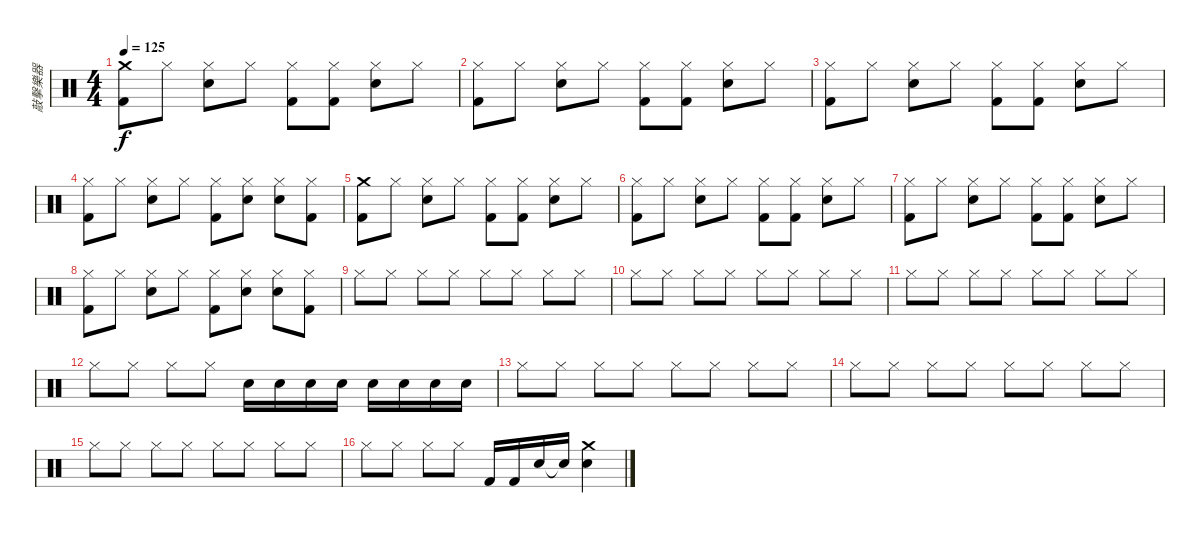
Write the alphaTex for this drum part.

\track ("敲擊樂器" "敲擊樂器") {instrument percussion}
\staff {score}
\articulation defaults
\ts (4 4)
\tempo 125
\clef neutral
\ks c
("Crash medium (hit)" "Kick (hit) 2").8{dy f} "Hi-Hat (closed)".8 ("Hi-Hat (closed)" "Snare (hit) 2").8 "Hi-Hat (closed)".8 ("Hi-Hat (closed)" "Kick (hit) 2").8 ("Hi-Hat (closed)" "Kick (hit) 2").8 ("Hi-Hat (closed)" "Snare (hit) 2").8 "Hi-Hat (closed)".8 |
("Hi-Hat (closed)" "Kick (hit) 2").8 "Hi-Hat (closed)".8 ("Hi-Hat (closed)" "Snare (hit) 2").8 "Hi-Hat (closed)".8 ("Hi-Hat (closed)" "Kick (hit) 2").8 ("Hi-Hat (closed)" "Kick (hit) 2").8 ("Hi-Hat (closed)" "Snare (hit) 2").8 "Hi-Hat (closed)".8 |
("Hi-Hat (closed)" "Kick (hit) 2").8 "Hi-Hat (closed)".8 ("Hi-Hat (closed)" "Snare (hit) 2").8 "Hi-Hat (closed)".8 ("Hi-Hat (closed)" "Kick (hit) 2").8 ("Hi-Hat (closed)" "Kick (hit) 2").8 ("Hi-Hat (closed)" "Snare (hit) 2").8 "Hi-Hat (closed)".8 |
("Hi-Hat (closed)" "Kick (hit) 2").8 "Hi-Hat (closed)".8 ("Hi-Hat (closed)" "Snare (hit) 2").8 "Hi-Hat (closed)".8 ("Hi-Hat (closed)" "Kick (hit) 2").8 ("Hi-Hat (closed)" "Snare (hit) 2").8 ("Hi-Hat (closed)" "Snare (hit) 2").8 ("Hi-Hat (closed)" "Kick (hit) 2").8 |
("Crash medium (hit)" "Kick (hit) 2").8 "Hi-Hat (closed)".8 ("Hi-Hat (closed)" "Snare (hit) 2").8 "Hi-Hat (closed)".8 ("Hi-Hat (closed)" "Kick (hit) 2").8 ("Hi-Hat (closed)" "Kick (hit) 2").8 ("Hi-Hat (closed)" "Snare (hit) 2").8 "Hi-Hat (closed)".8 |
("Hi-Hat (closed)" "Kick (hit) 2").8 "Hi-Hat (closed)".8 ("Hi-Hat (closed)" "Snare (hit) 2").8 "Hi-Hat (closed)".8 ("Hi-Hat (closed)" "Kick (hit) 2").8 ("Hi-Hat (closed)" "Kick (hit) 2").8 ("Hi-Hat (closed)" "Snare (hit) 2").8 "Hi-Hat (closed)".8 |
("Hi-Hat (closed)" "Kick (hit) 2").8 "Hi-Hat (closed)".8 ("Hi-Hat (closed)" "Snare (hit) 2").8 "Hi-Hat (closed)".8 ("Hi-Hat (closed)" "Kick (hit) 2").8 ("Hi-Hat (closed)" "Kick (hit) 2").8 ("Hi-Hat (closed)" "Snare (hit) 2").8 "Hi-Hat (closed)".8 |
("Hi-Hat (closed)" "Kick (hit) 2").8 "Hi-Hat (closed)".8 ("Hi-Hat (closed)" "Snare (hit) 2").8 "Hi-Hat (closed)".8 ("Hi-Hat (closed)" "Kick (hit) 2").8 ("Hi-Hat (closed)" "Snare (hit) 2").8 ("Hi-Hat (closed)" "Snare (hit) 2").8 ("Hi-Hat (closed)" "Kick (hit) 2").8 |
"Hi-Hat (closed)".8 "Hi-Hat (closed)".8 "Hi-Hat (closed)".8 "Hi-Hat (closed)".8 "Hi-Hat (closed)".8 "Hi-Hat (closed)".8 "Hi-Hat (closed)".8 "Hi-Hat (closed)".8 |
"Hi-Hat (closed)".8 "Hi-Hat (closed)".8 "Hi-Hat (closed)".8 "Hi-Hat (closed)".8 "Hi-Hat (closed)".8 "Hi-Hat (closed)".8 "Hi-Hat (closed)".8 "Hi-Hat (closed)".8 |
"Hi-Hat (closed)".8 "Hi-Hat (closed)".8 "Hi-Hat (closed)".8 "Hi-Hat (closed)".8 "Hi-Hat (closed)".8 "Hi-Hat (closed)".8 "Hi-Hat (closed)".8 "Hi-Hat (closed)".8 |
"Hi-Hat (closed)".8 "Hi-Hat (closed)".8 "Hi-Hat (closed)".8 "Hi-Hat (closed)".8 "Snare (hit) 2".16 "Snare (hit) 2".16 "Snare (hit) 2".16 "Snare (hit) 2".16 "Snare (hit) 2".16 "Snare (hit) 2".16 "Snare (hit) 2".16 "Snare (hit) 2".16 |
"Hi-Hat (closed)".8 "Hi-Hat (closed)".8 "Hi-Hat (closed)".8 "Hi-Hat (closed)".8 "Hi-Hat (closed)".8 "Hi-Hat (closed)".8 "Hi-Hat (closed)".8 "Hi-Hat (closed)".8 |
"Hi-Hat (closed)".8 "Hi-Hat (closed)".8 "Hi-Hat (closed)".8 "Hi-Hat (closed)".8 "Hi-Hat (closed)".8 "Hi-Hat (closed)".8 "Hi-Hat (closed)".8 "Hi-Hat (closed)".8 |
"Hi-Hat (closed)".8 "Hi-Hat (closed)".8 "Hi-Hat (closed)".8 "Hi-Hat (closed)".8 "Hi-Hat (closed)".8 "Hi-Hat (closed)".8 "Hi-Hat (closed)".8 "Hi-Hat (closed)".8 |
"Hi-Hat (closed)".8 "Hi-Hat (closed)".8 "Hi-Hat (closed)".8 "Hi-Hat (closed)".8 "Kick (hit) 2".16 "Kick (hit) 2".16 "Snare (hit) 2".16 "Snare (hit)"{t}.16 ("Crash medium (hit)" "Snare (hit) 2").4
